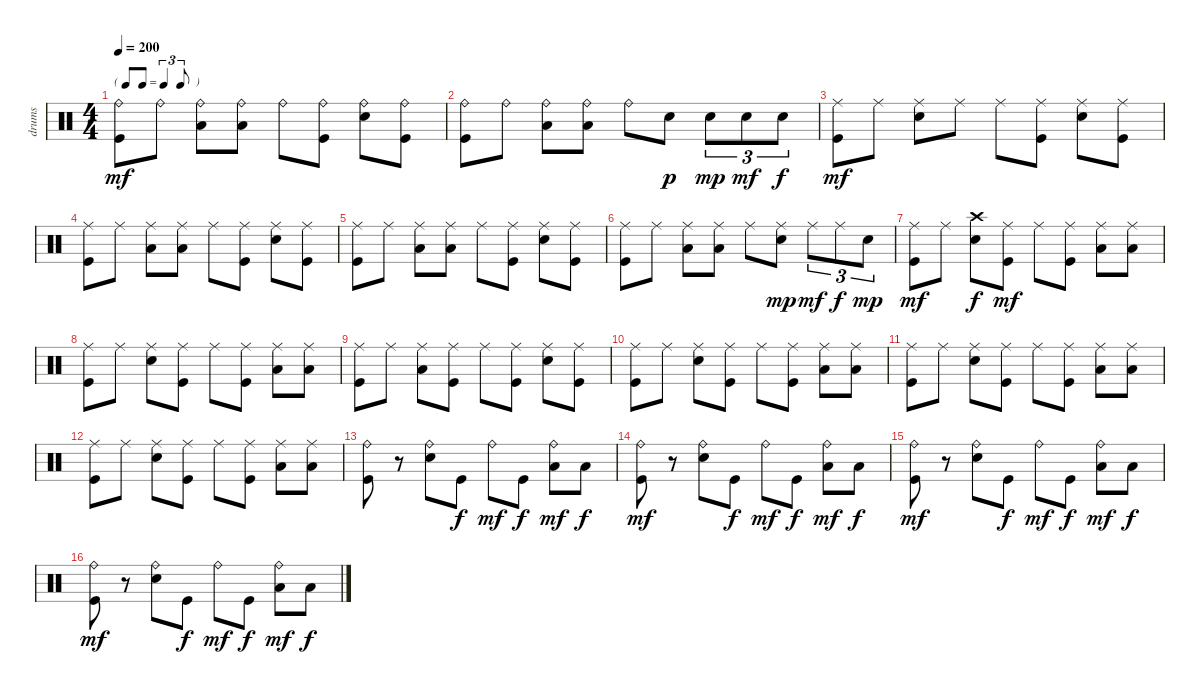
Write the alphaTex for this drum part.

\track ("drums" "drums") {instrument percussion}
\staff {score}
\articulation defaults
\ts (4 4)
\tf triplet8th
\tempo 200
\clef neutral
\ks c
("Ride (bell)" "Kick (hit)").8{dy mf} "Ride (bell)".8 ("Ride (bell)" "Low Tom (hit)").8 ("Ride (bell)" "Low Tom (hit)").8 "Ride (bell)".8 ("Ride (bell)" "Kick (hit)").8 ("Ride (bell)" "Snare (hit) 2").8 ("Ride (bell)" "Kick (hit)").8 |
("Ride (bell)" "Kick (hit)").8 "Ride (bell)".8 ("Ride (bell)" "Low Tom (hit)").8 ("Ride (bell)" "Low Tom (hit)").8 "Ride (bell)".8 "Snare (hit) 2".8{dy p} "Snare (hit) 2".8{tu (3 2) dy mp} "Snare (hit) 2".8{tu (3 2) dy mf} "Snare (hit) 2".8{tu (3 2) dy f} |
("Ride (middle)" "Kick (hit)").8{dy mf} "Ride (middle)".8 ("Ride (middle)" "Snare (hit) 2").8 "Ride (middle)".8 "Ride (middle)".8 ("Ride (middle)" "Kick (hit)").8 ("Ride (middle)" "Snare (hit) 2").8 ("Ride (middle)" "Kick (hit)").8 |
("Ride (middle)" "Kick (hit)").8 "Ride (middle)".8 ("Ride (middle)" "Low Tom (hit)").8 ("Ride (middle)" "Low Tom (hit)").8 "Ride (middle)".8 ("Ride (middle)" "Kick (hit)").8 ("Ride (middle)" "Snare (hit) 2").8 ("Ride (middle)" "Kick (hit)").8 |
("Ride (middle)" "Kick (hit)").8 "Ride (middle)".8 ("Ride (middle)" "Low Tom (hit)").8 ("Ride (middle)" "Low Tom (hit)").8 "Ride (middle)".8 ("Ride (middle)" "Kick (hit)").8 ("Ride (middle)" "Snare (hit) 2").8 ("Ride (middle)" "Kick (hit)").8 |
("Ride (middle)" "Kick (hit)").8 "Ride (middle)".8 ("Ride (middle)" "Low Tom (hit)").8 ("Ride (middle)" "Low Tom (hit)").8 "Ride (middle)".8 ("Ride (middle)" "Snare (hit) 2").8{dy mp} "Ride (middle)".8{tu (3 2) dy mf} "Ride (middle)".8{tu (3 2) dy f} "Snare (hit) 2".8{tu (3 2) dy mp} |
("Ride (middle)" "Kick (hit)").8{dy mf} "Ride (middle)".8 ("Crash high (hit)" "Snare (hit) 2").8{dy f} ("Ride (middle)" "Kick (hit)").8{dy mf} "Ride (middle)".8 ("Ride (middle)" "Kick (hit)").8 ("Ride (middle)" "Low Tom (hit)").8 ("Ride (middle)" "Low Tom (hit)").8 |
("Ride (middle)" "Kick (hit)").8 "Ride (middle)".8 ("Ride (middle)" "Snare (hit) 2").8 ("Ride (middle)" "Kick (hit)").8 "Ride (middle)".8 ("Ride (middle)" "Kick (hit)").8 ("Ride (middle)" "Low Tom (hit)").8 ("Ride (middle)" "Low Tom (hit)").8 |
("Ride (middle)" "Kick (hit)").8 "Ride (middle)".8 ("Ride (middle)" "Low Tom (hit)").8 ("Ride (middle)" "Kick (hit)").8 "Ride (middle)".8 ("Ride (middle)" "Kick (hit)").8 ("Ride (middle)" "Snare (hit) 2").8 ("Ride (middle)" "Kick (hit)").8 |
("Ride (middle)" "Kick (hit)").8 "Ride (middle)".8 ("Ride (middle)" "Snare (hit) 2").8 ("Ride (middle)" "Kick (hit)").8 "Ride (middle)".8 ("Ride (middle)" "Kick (hit)").8 ("Ride (middle)" "Low Tom (hit)").8 ("Ride (middle)" "Low Tom (hit)").8 |
("Ride (middle)" "Kick (hit)").8 "Ride (middle)".8 ("Ride (middle)" "Snare (hit) 2").8 ("Ride (middle)" "Kick (hit)").8 "Ride (middle)".8 ("Ride (middle)" "Kick (hit)").8 ("Ride (middle)" "Low Tom (hit)").8 ("Ride (middle)" "Low Tom (hit)").8 |
("Ride (middle)" "Kick (hit)").8 "Ride (middle)".8 ("Ride (middle)" "Snare (hit) 2").8 ("Ride (middle)" "Kick (hit)").8 "Ride (middle)".8 ("Ride (middle)" "Kick (hit)").8 ("Ride (middle)" "Low Tom (hit)").8 ("Ride (middle)" "Low Tom (hit)").8 |
("Ride (bell)" "Kick (hit)").8 r.8 ("Ride (bell)" "Snare (hit) 2").8 "Kick (hit)".8{dy f} "Ride (bell)".8{dy mf} "Kick (hit)".8{dy f} ("Ride (bell)" "Low Tom (hit)").8{dy mf} "Low Tom (hit)".8{dy f} |
("Ride (bell)" "Kick (hit)").8{dy mf} r.8 ("Ride (bell)" "Snare (hit) 2").8 "Kick (hit)".8{dy f} "Ride (bell)".8{dy mf} "Kick (hit)".8{dy f} ("Ride (bell)" "Low Tom (hit)").8{dy mf} "Low Tom (hit)".8{dy f} |
("Ride (bell)" "Kick (hit)").8{dy mf} r.8 ("Ride (bell)" "Snare (hit) 2").8 "Kick (hit)".8{dy f} "Ride (bell)".8{dy mf} "Kick (hit)".8{dy f} ("Ride (bell)" "Low Tom (hit)").8{dy mf} "Low Tom (hit)".8{dy f} |
("Ride (bell)" "Kick (hit)").8{dy mf} r.8 ("Ride (bell)" "Snare (hit) 2").8 "Kick (hit)".8{dy f} "Ride (bell)".8{dy mf} "Kick (hit)".8{dy f} ("Ride (bell)" "Low Tom (hit)").8{dy mf} "Low Tom (hit)".8{dy f}
